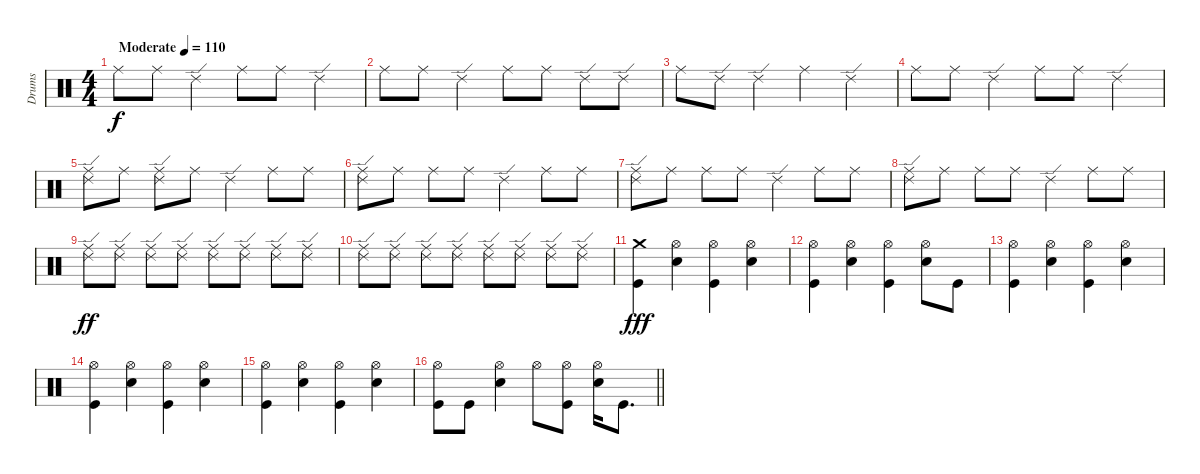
\track ("Drums" "Drums") {instrument percussion}
\staff {score}
\articulation defaults
\ts (4 4)
\tempo (110 "Moderate")
\clef neutral
\ks c "Ride (middle)".8{dy f} "Ride (middle)".8 "Ride (edge) 2".4 "Ride (middle)".8 "Ride (middle)".8 "Ride (edge) 2".4
|
"Ride (middle)".8 "Ride (middle)".8 "Ride (edge) 2".4 "Ride (middle)".8 "Ride (middle)".8 "Ride (edge) 2".8 "Ride (edge) 2".8 |
"Ride (middle)".8 "Ride (edge) 2".8 "Ride (edge) 2".4 "Ride (middle)".4 "Ride (edge) 2".4 |
"Ride (middle)".8 "Ride (middle)".8 "Ride (edge) 2".4 "Ride (middle)".8 "Ride (middle)".8 "Ride (edge) 2".4 |
("Ride (edge) 2" "Ride (middle)").8 "Ride (middle)".8 ("Ride (edge) 2" "Ride (middle)").8 "Ride (middle)".8 "Ride (edge) 2".4 "Ride (middle)".8 "Ride (middle)".8 |
("Ride (edge) 2" "Ride (middle)").8 "Ride (middle)".8 "Ride (middle)".8 "Ride (middle)".8 "Ride (edge) 2".4 "Ride (middle)".8 "Ride (middle)".8 |
("Ride (edge) 2" "Ride (middle)").8 "Ride (middle)".8 "Ride (middle)".8 "Ride (middle)".8 "Ride (edge) 2".4 "Ride (middle)".8 "Ride (middle)".8 |
("Ride (edge) 2" "Ride (middle)").8 "Ride (middle)".8 "Ride (middle)".8 "Ride (middle)".8 "Ride (edge) 2".4 "Ride (middle)".8 "Ride (middle)".8 |
("Ride (edge) 2" "Ride (middle)").8{dy ff} ("Ride (edge) 2" "Ride (middle)").8 ("Ride (edge) 2" "Ride (middle)").8 ("Ride (edge) 2" "Ride (middle)").8 ("Ride (edge) 2" "Ride (middle)").8 ("Ride (edge) 2" "Ride (middle)").8 ("Ride (edge) 2" "Ride (middle)").8 ("Ride (edge) 2" "Ride (middle)").8 |
("Ride (edge) 2" "Ride (middle)").8 ("Ride (edge) 2" "Ride (middle)").8 ("Ride (edge) 2" "Ride (middle)").8 ("Ride (edge) 2" "Ride (middle)").8 ("Ride (edge) 2" "Ride (middle)").8 ("Ride (edge) 2" "Ride (middle)").8 ("Ride (edge) 2" "Ride (middle)").8 ("Ride (edge) 2" "Ride (middle)").8 |
("Crash medium (hit)" "Kick (hit)").4{dy fff} ("Hi-Hat (open)" "Snare (hit) 2").4 ("Hi-Hat (open)" "Kick (hit)").4 ("Hi-Hat (open)" "Snare (hit) 2").4 |
("Hi-Hat (open)" "Kick (hit)").4 ("Hi-Hat (open)" "Snare (hit) 2").4 ("Hi-Hat (open)" "Kick (hit)").4 ("Hi-Hat (open)" "Snare (hit) 2").8 "Kick (hit)".8 |
("Hi-Hat (open)" "Kick (hit)").4 ("Hi-Hat (open)" "Snare (hit) 2").4 ("Hi-Hat (open)" "Kick (hit)").4 ("Hi-Hat (open)" "Snare (hit) 2").4 |
("Hi-Hat (open)" "Kick (hit)").4 ("Hi-Hat (open)" "Snare (hit) 2").4 ("Hi-Hat (open)" "Kick (hit)").4 ("Hi-Hat (open)" "Snare (hit) 2").4 |
("Hi-Hat (open)" "Kick (hit)").4 ("Hi-Hat (open)" "Snare (hit) 2").4 ("Hi-Hat (open)" "Kick (hit)").4 ("Hi-Hat (open)" "Snare (hit) 2").4 |
\barLineRight lightlight
("Hi-Hat (open)" "Kick (hit)").8 "Kick (hit)".8 ("Hi-Hat (open)" "Snare (hit) 2").4 "Hi-Hat (open)".8 ("Hi-Hat (open)" "Kick (hit)").8 ("Hi-Hat (open)" "Snare (hit) 2").16 "Kick (hit)".8{d}
